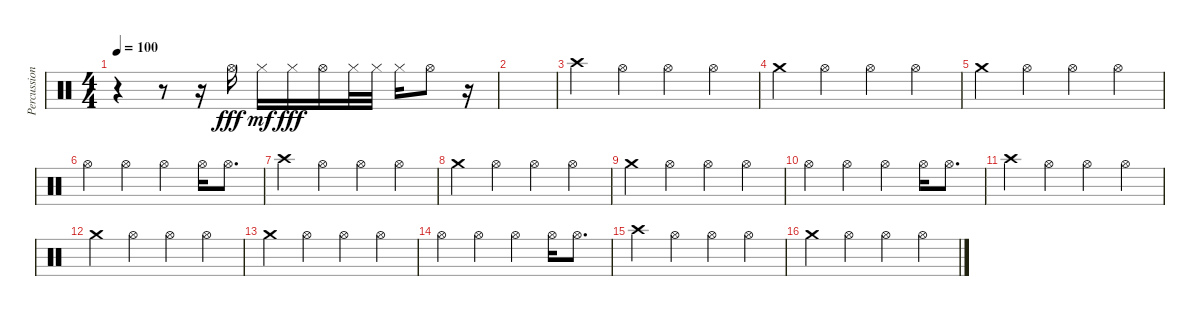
\track ("Percussion" "Percussion") {instrument percussion}
\staff {score}
\articulation defaults
\ts (4 4)
\tempo 100
\clef neutral
\ks c
r.4{dy fff} r.8 r.16 "Hi-Hat (open)".16 "Hi-Hat (closed)".16{dy mf} "Hi-Hat (closed)".16{dy fff} "Hi-Hat (open)".16 "Hi-Hat (closed)".32 "Hi-Hat (closed)".32 "Hi-Hat (closed)".16 "Hi-Hat (open)".8 r.16 |
|
"Crash high (hit)".4 "Hi-Hat (open)".4 "Hi-Hat (open)".4 "Hi-Hat (open)".4 |
"Crash medium (hit)".4 "Hi-Hat (open)".4 "Hi-Hat (open)".4 "Hi-Hat (open)".4 |
"Crash medium (hit)".4 "Hi-Hat (open)".4 "Hi-Hat (open)".4 "Hi-Hat (open)".4 |
"Hi-Hat (open)".4 "Hi-Hat (open)".4 "Hi-Hat (open)".4 "Hi-Hat (open)".16 "Hi-Hat (open)".8{d} |
"Crash high (hit)".4 "Hi-Hat (open)".4 "Hi-Hat (open)".4 "Hi-Hat (open)".4 |
"Crash medium (hit)".4 "Hi-Hat (open)".4 "Hi-Hat (open)".4 "Hi-Hat (open)".4 |
"Crash medium (hit)".4 "Hi-Hat (open)".4 "Hi-Hat (open)".4 "Hi-Hat (open)".4 |
"Hi-Hat (open)".4 "Hi-Hat (open)".4 "Hi-Hat (open)".4 "Hi-Hat (open)".16 "Hi-Hat (open)".8{d} |
"Crash high (hit)".4 "Hi-Hat (open)".4 "Hi-Hat (open)".4 "Hi-Hat (open)".4 |
"Crash medium (hit)".4 "Hi-Hat (open)".4 "Hi-Hat (open)".4 "Hi-Hat (open)".4 |
"Crash medium (hit)".4 "Hi-Hat (open)".4 "Hi-Hat (open)".4 "Hi-Hat (open)".4 |
"Hi-Hat (open)".4 "Hi-Hat (open)".4 "Hi-Hat (open)".4 "Hi-Hat (open)".16 "Hi-Hat (open)".8{d} |
"Crash high (hit)".4 "Hi-Hat (open)".4 "Hi-Hat (open)".4 "Hi-Hat (open)".4 |
"Crash medium (hit)".4 "Hi-Hat (open)".4 "Hi-Hat (open)".4 "Hi-Hat (open)".4
